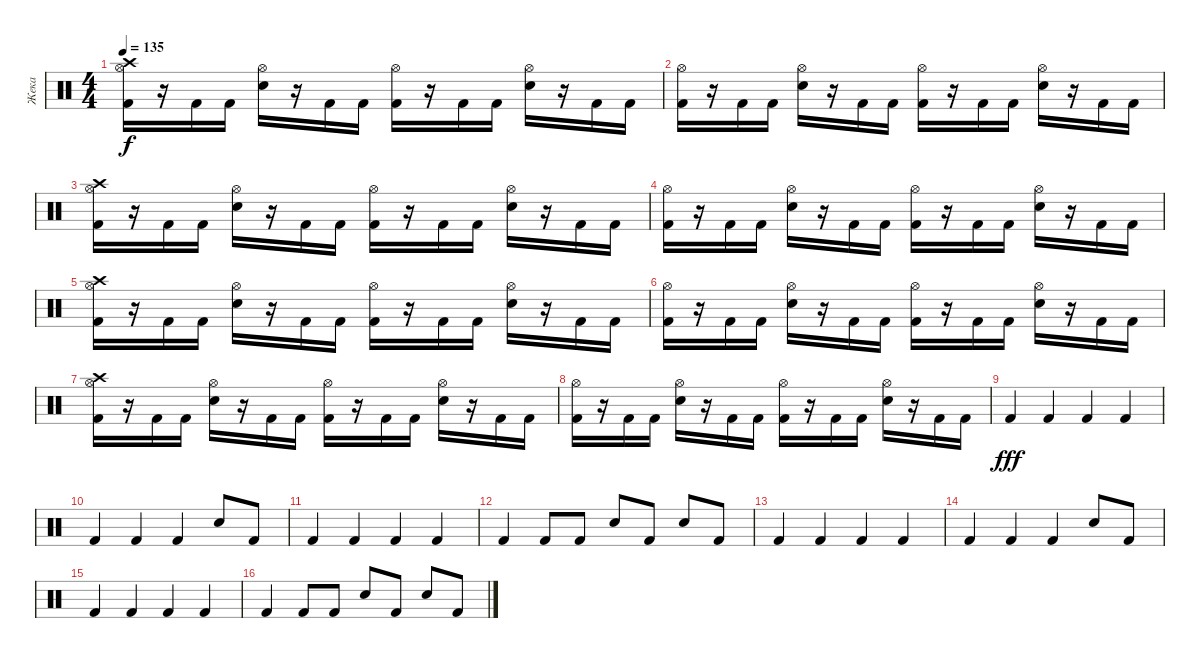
\track ("Жека" "Жека") {instrument percussion}
\staff {score}
\articulation defaults
\ts (4 4)
\tempo 135
\clef neutral
\ks c
("Kick (hit) 2" "Hi-Hat (open)" "Crash high (hit)").16{dy f} r.16 "Kick (hit) 2".16 "Kick (hit) 2".16 ("Snare (hit) 2" "Hi-Hat (open)").16 r.16 "Kick (hit) 2".16 "Kick (hit) 2".16 ("Kick (hit) 2" "Hi-Hat (open)").16 r.16 "Kick (hit) 2".16 "Kick (hit) 2".16 ("Snare (hit) 2" "Hi-Hat (open)").16 r.16 "Kick (hit) 2".16 "Kick (hit) 2".16 |
("Kick (hit) 2" "Hi-Hat (open)").16 r.16 "Kick (hit) 2".16 "Kick (hit) 2".16 ("Snare (hit) 2" "Hi-Hat (open)").16 r.16 "Kick (hit) 2".16 "Kick (hit) 2".16 ("Kick (hit) 2" "Hi-Hat (open)").16 r.16 "Kick (hit) 2".16 "Kick (hit) 2".16 ("Snare (hit) 2" "Hi-Hat (open)").16 r.16 "Kick (hit) 2".16 "Kick (hit) 2".16 |
("Kick (hit) 2" "Hi-Hat (open)" "Crash high (hit)").16 r.16 "Kick (hit) 2".16 "Kick (hit) 2".16 ("Snare (hit) 2" "Hi-Hat (open)").16 r.16 "Kick (hit) 2".16 "Kick (hit) 2".16 ("Kick (hit) 2" "Hi-Hat (open)").16 r.16 "Kick (hit) 2".16 "Kick (hit) 2".16 ("Snare (hit) 2" "Hi-Hat (open)").16 r.16 "Kick (hit) 2".16 "Kick (hit) 2".16 |
("Kick (hit) 2" "Hi-Hat (open)").16 r.16 "Kick (hit) 2".16 "Kick (hit) 2".16 ("Snare (hit) 2" "Hi-Hat (open)").16 r.16 "Kick (hit) 2".16 "Kick (hit) 2".16 ("Kick (hit) 2" "Hi-Hat (open)").16 r.16 "Kick (hit) 2".16 "Kick (hit) 2".16 ("Snare (hit) 2" "Hi-Hat (open)").16 r.16 "Kick (hit) 2".16 "Kick (hit) 2".16 |
("Kick (hit) 2" "Hi-Hat (open)" "Crash high (hit)").16 r.16 "Kick (hit) 2".16 "Kick (hit) 2".16 ("Snare (hit) 2" "Hi-Hat (open)").16 r.16 "Kick (hit) 2".16 "Kick (hit) 2".16 ("Kick (hit) 2" "Hi-Hat (open)").16 r.16 "Kick (hit) 2".16 "Kick (hit) 2".16 ("Snare (hit) 2" "Hi-Hat (open)").16 r.16 "Kick (hit) 2".16 "Kick (hit) 2".16 |
("Kick (hit) 2" "Hi-Hat (open)").16 r.16 "Kick (hit) 2".16 "Kick (hit) 2".16 ("Snare (hit) 2" "Hi-Hat (open)").16 r.16 "Kick (hit) 2".16 "Kick (hit) 2".16 ("Kick (hit) 2" "Hi-Hat (open)").16 r.16 "Kick (hit) 2".16 "Kick (hit) 2".16 ("Snare (hit) 2" "Hi-Hat (open)").16 r.16 "Kick (hit) 2".16 "Kick (hit) 2".16 |
("Kick (hit) 2" "Hi-Hat (open)" "Crash high (hit)").16 r.16 "Kick (hit) 2".16 "Kick (hit) 2".16 ("Snare (hit) 2" "Hi-Hat (open)").16 r.16 "Kick (hit) 2".16 "Kick (hit) 2".16 ("Kick (hit) 2" "Hi-Hat (open)").16 r.16 "Kick (hit) 2".16 "Kick (hit) 2".16 ("Snare (hit) 2" "Hi-Hat (open)").16 r.16 "Kick (hit) 2".16 "Kick (hit) 2".16 |
("Kick (hit) 2" "Hi-Hat (open)").16 r.16 "Kick (hit) 2".16 "Kick (hit) 2".16 ("Snare (hit) 2" "Hi-Hat (open)").16 r.16 "Kick (hit) 2".16 "Kick (hit) 2".16 ("Kick (hit) 2" "Hi-Hat (open)").16 r.16 "Kick (hit) 2".16 "Kick (hit) 2".16 ("Snare (hit) 2" "Hi-Hat (open)").16 r.16 "Kick (hit) 2".16 "Kick (hit) 2".16 |
"Kick (hit) 2".4{dy fff} "Kick (hit) 2".4 "Kick (hit) 2".4 "Kick (hit) 2".4 |
"Kick (hit) 2".4 "Kick (hit) 2".4 "Kick (hit) 2".4 "Snare (hit) 2".8 "Kick (hit) 2".8 |
"Kick (hit) 2".4 "Kick (hit) 2".4 "Kick (hit) 2".4 "Kick (hit) 2".4 |
"Kick (hit) 2".4 "Kick (hit) 2".8 "Kick (hit) 2".8 "Snare (hit) 2".8 "Kick (hit) 2".8 "Snare (hit) 2".8 "Kick (hit) 2".8 |
"Kick (hit) 2".4 "Kick (hit) 2".4 "Kick (hit) 2".4 "Kick (hit) 2".4 |
"Kick (hit) 2".4 "Kick (hit) 2".4 "Kick (hit) 2".4 "Snare (hit) 2".8 "Kick (hit) 2".8 |
"Kick (hit) 2".4 "Kick (hit) 2".4 "Kick (hit) 2".4 "Kick (hit) 2".4 |
"Kick (hit) 2".4 "Kick (hit) 2".8 "Kick (hit) 2".8 "Snare (hit) 2".8 "Kick (hit) 2".8 "Snare (hit) 2".8 "Kick (hit) 2".8
